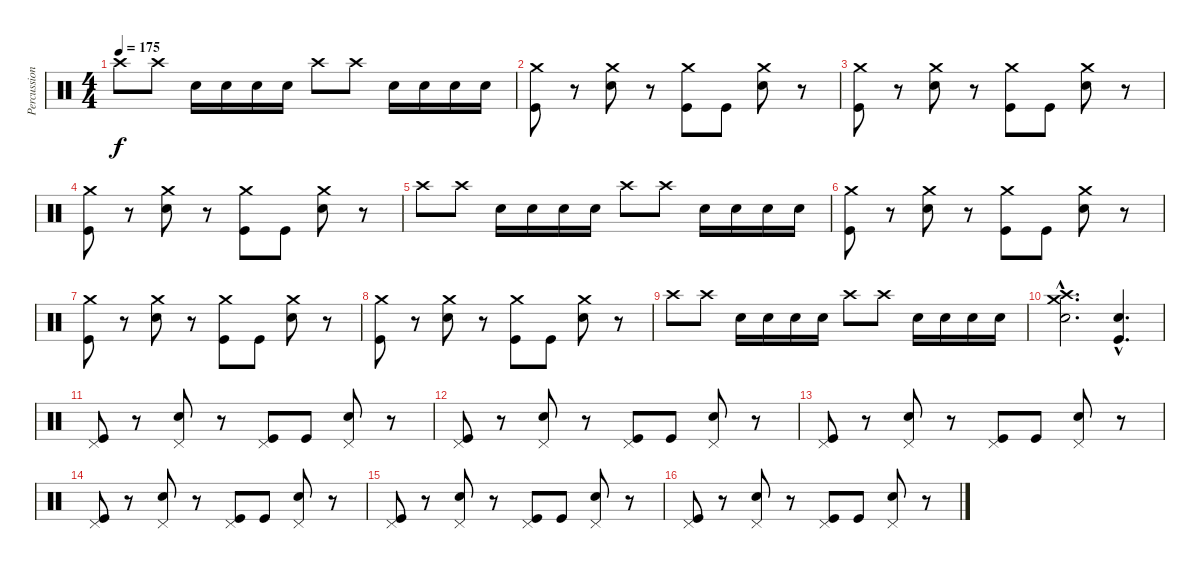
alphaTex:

\track ("Percussion" "Percussion") {instrument percussion}
\staff {score}
\articulation defaults
\ts (4 4)
\tempo 175
\clef neutral
\ks c "Crash high (hit)".8{dy f} "Crash high (hit)".8 "Electric Snare (hit)".16 "Electric Snare (hit)".16 "Electric Snare (hit)".16 "Electric Snare (hit)".16 "Crash high (hit)".8 "Crash high (hit)".8 "Electric Snare (hit)".16 "Electric Snare (hit)".16 "Electric Snare (hit)".16 "Electric Snare (hit)".16
|
("Crash medium (hit)" "Kick (hit)").8 r.8 ("Crash medium (hit)" "Electric Snare (hit)").8 r.8 ("Crash medium (hit)" "Kick (hit)").8 "Kick (hit)".8 ("Crash medium (hit)" "Electric Snare (hit)").8 r.8 |
("Crash medium (hit)" "Kick (hit)").8 r.8 ("Crash medium (hit)" "Electric Snare (hit)").8 r.8 ("Crash medium (hit)" "Kick (hit)").8 "Kick (hit)".8 ("Crash medium (hit)" "Electric Snare (hit)").8 r.8 |
("Crash medium (hit)" "Kick (hit)").8 r.8 ("Crash medium (hit)" "Electric Snare (hit)").8 r.8 ("Crash medium (hit)" "Kick (hit)").8 "Kick (hit)".8 ("Crash medium (hit)" "Electric Snare (hit)").8 r.8 |
"Crash high (hit)".8 "Crash high (hit)".8 "Electric Snare (hit)".16 "Electric Snare (hit)".16 "Electric Snare (hit)".16 "Electric Snare (hit)".16 "Crash high (hit)".8 "Crash high (hit)".8 "Electric Snare (hit)".16 "Electric Snare (hit)".16 "Electric Snare (hit)".16 "Electric Snare (hit)".16 |
("Crash medium (hit)" "Kick (hit)").8 r.8 ("Crash medium (hit)" "Electric Snare (hit)").8 r.8 ("Crash medium (hit)" "Kick (hit)").8 "Kick (hit)".8 ("Crash medium (hit)" "Electric Snare (hit)").8 r.8 |
("Crash medium (hit)" "Kick (hit)").8 r.8 ("Crash medium (hit)" "Electric Snare (hit)").8 r.8 ("Crash medium (hit)" "Kick (hit)").8 "Kick (hit)".8 ("Crash medium (hit)" "Electric Snare (hit)").8 r.8 |
("Crash medium (hit)" "Kick (hit)").8 r.8 ("Crash medium (hit)" "Electric Snare (hit)").8 r.8 ("Crash medium (hit)" "Kick (hit)").8 "Kick (hit)".8 ("Crash medium (hit)" "Electric Snare (hit)").8 r.8 |
"Crash high (hit)".8 "Crash high (hit)".8 "Electric Snare (hit)".16 "Electric Snare (hit)".16 "Electric Snare (hit)".16 "Electric Snare (hit)".16 "Crash high (hit)".8 "Crash high (hit)".8 "Electric Snare (hit)".16 "Electric Snare (hit)".16 "Electric Snare (hit)".16 "Electric Snare (hit)".16 |
("Crash high (hit)"{hac} "Crash medium (hit)"{hac} "Electric Snare (hit)"{hac}).2{d} ("Snare (hit) 2"{hac} "Kick (hit)"{hac}).4{d} |
("Pedal Hi-Hat (hit)" "Kick (hit)").8 r.8 ("Pedal Hi-Hat (hit)" "Electric Snare (hit)").8 r.8 ("Pedal Hi-Hat (hit)" "Kick (hit)").8 "Kick (hit)".8 ("Pedal Hi-Hat (hit)" "Electric Snare (hit)").8 r.8 |
("Pedal Hi-Hat (hit)" "Kick (hit)").8 r.8 ("Pedal Hi-Hat (hit)" "Electric Snare (hit)").8 r.8 ("Pedal Hi-Hat (hit)" "Kick (hit)").8 "Kick (hit)".8 ("Pedal Hi-Hat (hit)" "Electric Snare (hit)").8 r.8 |
("Pedal Hi-Hat (hit)" "Kick (hit)").8 r.8 ("Pedal Hi-Hat (hit)" "Electric Snare (hit)").8 r.8 ("Pedal Hi-Hat (hit)" "Kick (hit)").8 "Kick (hit)".8 ("Pedal Hi-Hat (hit)" "Electric Snare (hit)").8 r.8 |
("Pedal Hi-Hat (hit)" "Kick (hit)").8 r.8 ("Pedal Hi-Hat (hit)" "Electric Snare (hit)").8 r.8 ("Pedal Hi-Hat (hit)" "Kick (hit)").8 "Kick (hit)".8 ("Pedal Hi-Hat (hit)" "Electric Snare (hit)").8 r.8 |
("Pedal Hi-Hat (hit)" "Kick (hit)").8 r.8 ("Pedal Hi-Hat (hit)" "Electric Snare (hit)").8 r.8 ("Pedal Hi-Hat (hit)" "Kick (hit)").8 "Kick (hit)".8 ("Pedal Hi-Hat (hit)" "Electric Snare (hit)").8 r.8 |
("Pedal Hi-Hat (hit)" "Kick (hit)").8 r.8 ("Pedal Hi-Hat (hit)" "Electric Snare (hit)").8 r.8 ("Pedal Hi-Hat (hit)" "Kick (hit)").8 "Kick (hit)".8 ("Pedal Hi-Hat (hit)" "Electric Snare (hit)").8 r.8
